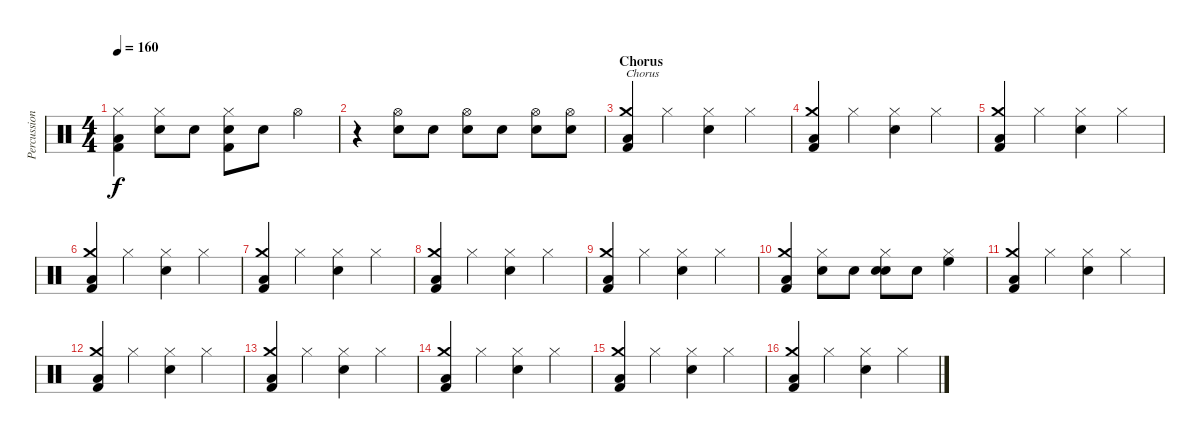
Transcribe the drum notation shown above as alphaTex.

\track ("Percussion" "Percussion") {instrument percussion}
\staff {score}
\articulation defaults
\ts (4 4)
\tempo 160
\clef neutral
\ks c
("Hi-Hat (closed)" "Low Floor Tom (hit)" "Kick (hit) 2").4{dy f} ("Hi-Hat (closed)" "Electric Snare (hit)").8 "Electric Snare (hit)".8 ("Hi-Hat (closed)" "Electric Snare (hit)" "Kick (hit) 2").8 "Electric Snare (hit)".8 "Hi-Hat (open)".4 |
r.4 ("Hi-Hat (open)" "Electric Snare (hit)").8 "Electric Snare (hit)".8 ("Hi-Hat (open)" "Electric Snare (hit)").8 "Electric Snare (hit)".8 ("Hi-Hat (open)" "Electric Snare (hit)").8 ("Hi-Hat (open)" "Electric Snare (hit)").8 |
\section ("" "Chorus")
("Crash medium (hit)" "Low Tom (hit)" "Kick (hit) 2").4{txt "Chorus" volume 16} "Hi-Hat (closed)".4 ("Hi-Hat (closed)" "Snare (hit) 2").4 "Hi-Hat (closed)".4 |
("Crash medium (hit)" "Low Tom (hit)" "Kick (hit) 2").4 "Hi-Hat (closed)".4 ("Hi-Hat (closed)" "Snare (hit) 2").4 "Hi-Hat (closed)".4 |
("Crash medium (hit)" "Low Tom (hit)" "Kick (hit) 2").4 "Hi-Hat (closed)".4 ("Hi-Hat (closed)" "Snare (hit) 2").4 "Hi-Hat (closed)".4 |
("Crash medium (hit)" "Low Tom (hit)" "Kick (hit) 2").4 "Hi-Hat (closed)".4 ("Hi-Hat (closed)" "Snare (hit) 2").4 "Hi-Hat (closed)".4 |
("Crash medium (hit)" "Low Tom (hit)" "Kick (hit) 2").4 "Hi-Hat (closed)".4 ("Hi-Hat (closed)" "Snare (hit) 2").4 "Hi-Hat (closed)".4 |
("Crash medium (hit)" "Low Tom (hit)" "Kick (hit) 2").4 "Hi-Hat (closed)".4 ("Hi-Hat (closed)" "Snare (hit) 2").4 "Hi-Hat (closed)".4 |
("Crash medium (hit)" "Low Tom (hit)" "Kick (hit) 2").4 "Hi-Hat (closed)".4 ("Hi-Hat (closed)" "Snare (hit) 2").4 "Hi-Hat (closed)".4 |
("Crash medium (hit)" "Low Tom (hit)" "Kick (hit) 2").4 ("Hi-Hat (closed)" "Electric Snare (hit)").8 "Electric Snare (hit)".8 ("Hi-Hat (closed)" "Snare (hit) 2" "Electric Snare (hit)").8 "Electric Snare (hit)".8 ("Hi-Hat (closed)" "High Floor Tom (hit)").4 |
("Crash medium (hit)" "Low Tom (hit)" "Kick (hit) 2").4 "Hi-Hat (closed)".4 ("Hi-Hat (closed)" "Snare (hit) 2").4 "Hi-Hat (closed)".4 |
("Crash medium (hit)" "Low Tom (hit)" "Kick (hit) 2").4 "Hi-Hat (closed)".4 ("Hi-Hat (closed)" "Snare (hit) 2").4 "Hi-Hat (closed)".4 |
("Crash medium (hit)" "Low Tom (hit)" "Kick (hit) 2").4 "Hi-Hat (closed)".4 ("Hi-Hat (closed)" "Snare (hit) 2").4 "Hi-Hat (closed)".4 |
("Crash medium (hit)" "Low Tom (hit)" "Kick (hit) 2").4 "Hi-Hat (closed)".4 ("Hi-Hat (closed)" "Snare (hit) 2").4 "Hi-Hat (closed)".4 |
("Crash medium (hit)" "Low Tom (hit)" "Kick (hit) 2").4 "Hi-Hat (closed)".4 ("Hi-Hat (closed)" "Snare (hit) 2").4 "Hi-Hat (closed)".4 |
("Crash medium (hit)" "Low Tom (hit)" "Kick (hit) 2").4 "Hi-Hat (closed)".4 ("Hi-Hat (closed)" "Snare (hit) 2").4 "Hi-Hat (closed)".4
